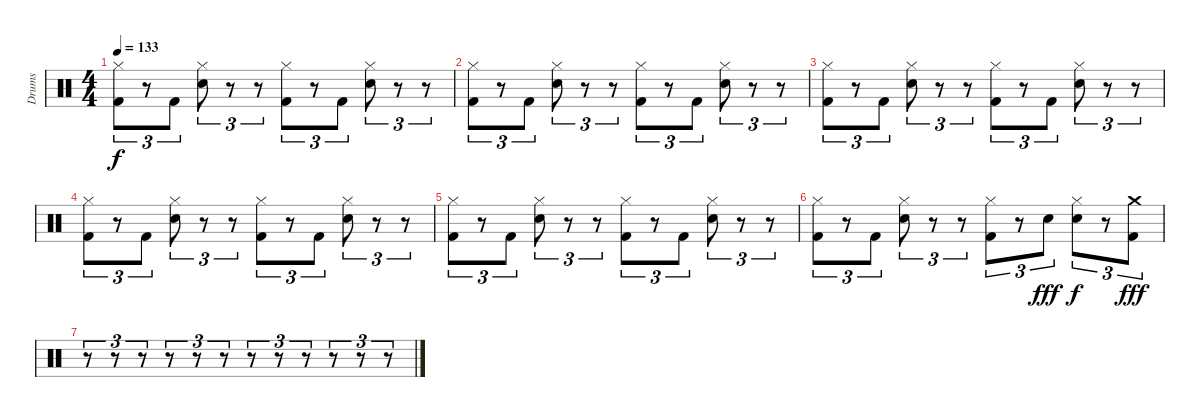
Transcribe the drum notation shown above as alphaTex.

\track ("Drums" "Drums") {instrument percussion}
\staff {score}
\articulation defaults
\ts (4 4)
\tempo 133
\clef neutral
\ks c
("Hi-Hat (closed)" "Kick (hit) 2").8{tu (3 2) dy f} r.8{tu (3 2)} "Kick (hit) 2".8{tu (3 2)} ("Hi-Hat (closed)" "Snare (hit) 2").8{tu (3 2)} r.8{tu (3 2)} r.8{tu (3 2)} ("Hi-Hat (closed)" "Kick (hit) 2").8{tu (3 2)} r.8{tu (3 2)} "Kick (hit) 2".8{tu (3 2)} ("Hi-Hat (closed)" "Snare (hit) 2").8{tu (3 2)} r.8{tu (3 2)} r.8{tu (3 2)} |
("Hi-Hat (closed)" "Kick (hit) 2").8{tu (3 2)} r.8{tu (3 2)} "Kick (hit) 2".8{tu (3 2)} ("Hi-Hat (closed)" "Snare (hit) 2").8{tu (3 2)} r.8{tu (3 2)} r.8{tu (3 2)} ("Hi-Hat (closed)" "Kick (hit) 2").8{tu (3 2)} r.8{tu (3 2)} "Kick (hit) 2".8{tu (3 2)} ("Hi-Hat (closed)" "Snare (hit) 2").8{tu (3 2)} r.8{tu (3 2)} r.8{tu (3 2)} |
("Hi-Hat (closed)" "Kick (hit) 2").8{tu (3 2)} r.8{tu (3 2)} "Kick (hit) 2".8{tu (3 2)} ("Hi-Hat (closed)" "Snare (hit) 2").8{tu (3 2)} r.8{tu (3 2)} r.8{tu (3 2)} ("Hi-Hat (closed)" "Kick (hit) 2").8{tu (3 2)} r.8{tu (3 2)} "Kick (hit) 2".8{tu (3 2)} ("Hi-Hat (closed)" "Snare (hit) 2").8{tu (3 2)} r.8{tu (3 2)} r.8{tu (3 2)} |
("Hi-Hat (closed)" "Kick (hit) 2").8{tu (3 2)} r.8{tu (3 2)} "Kick (hit) 2".8{tu (3 2)} ("Hi-Hat (closed)" "Snare (hit) 2").8{tu (3 2)} r.8{tu (3 2)} r.8{tu (3 2)} ("Hi-Hat (closed)" "Kick (hit) 2").8{tu (3 2)} r.8{tu (3 2)} "Kick (hit) 2".8{tu (3 2)} ("Hi-Hat (closed)" "Snare (hit) 2").8{tu (3 2)} r.8{tu (3 2)} r.8{tu (3 2)} |
("Hi-Hat (closed)" "Kick (hit) 2").8{tu (3 2)} r.8{tu (3 2)} "Kick (hit) 2".8{tu (3 2)} ("Hi-Hat (closed)" "Snare (hit) 2").8{tu (3 2)} r.8{tu (3 2)} r.8{tu (3 2)} ("Hi-Hat (closed)" "Kick (hit) 2").8{tu (3 2)} r.8{tu (3 2)} "Kick (hit) 2".8{tu (3 2)} ("Hi-Hat (closed)" "Snare (hit) 2").8{tu (3 2)} r.8{tu (3 2)} r.8{tu (3 2)} |
("Hi-Hat (closed)" "Kick (hit) 2").8{tu (3 2)} r.8{tu (3 2)} "Kick (hit) 2".8{tu (3 2)} ("Hi-Hat (closed)" "Snare (hit) 2").8{tu (3 2)} r.8{tu (3 2)} r.8{tu (3 2)} ("Hi-Hat (closed)" "Kick (hit) 2").8{tu (3 2)} r.8{tu (3 2)} "Snare (hit) 2".8{tu (3 2) dy fff} ("Hi-Hat (closed)" "Snare (hit) 2").8{tu (3 2) dy f} r.8{tu (3 2)} ("Crash medium (hit)" "Kick (hit) 2").8{tu (3 2) dy fff} |
r.8{tu (3 2)} r.8{tu (3 2)} r.8{tu (3 2)} r.8{tu (3 2)} r.8{tu (3 2)} r.8{tu (3 2)} r.8{tu (3 2)} r.8{tu (3 2)} r.8{tu (3 2)} r.8{tu (3 2)} r.8{tu (3 2)} r.8{tu (3 2)}
